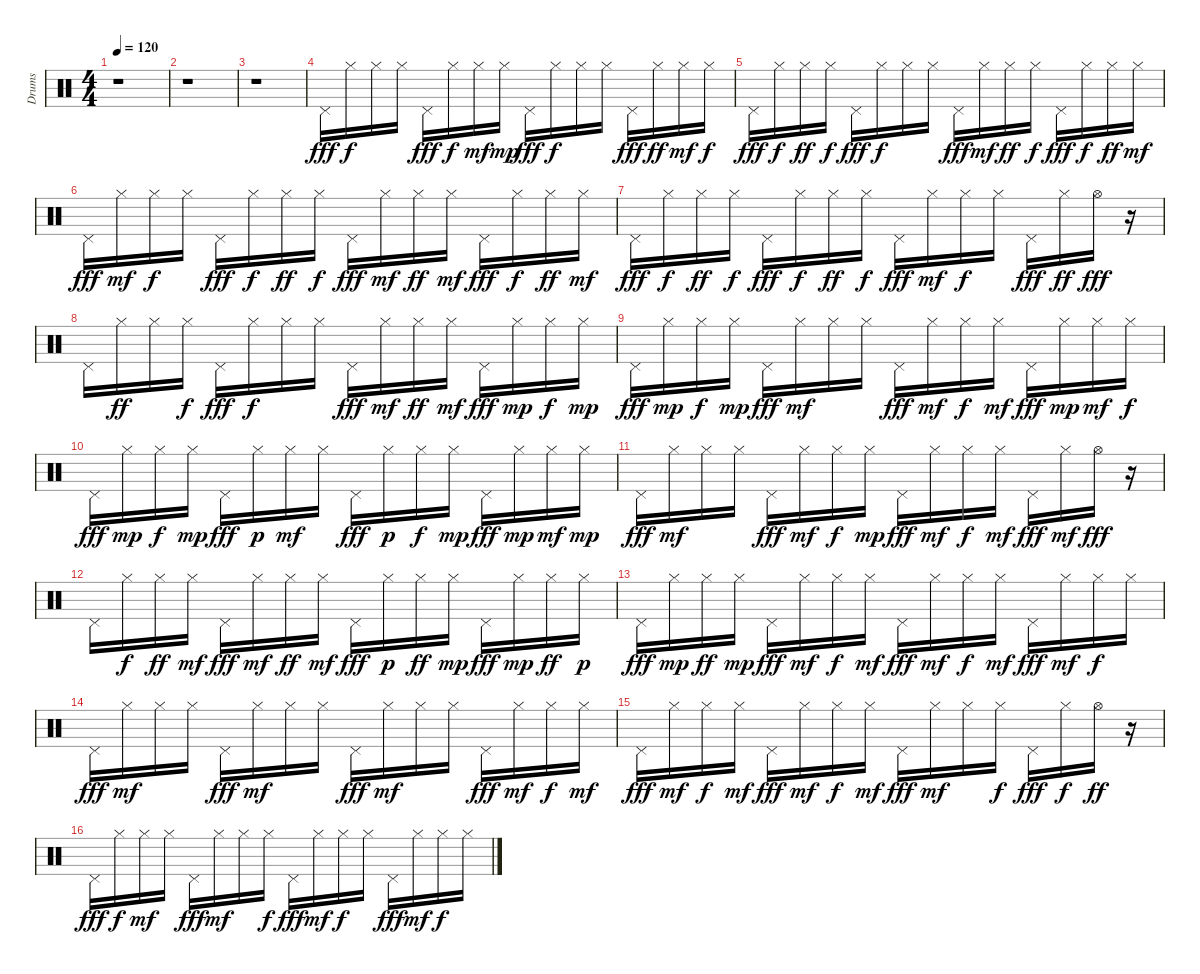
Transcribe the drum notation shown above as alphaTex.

\track ("Drums" "Drums") {instrument percussion}
\staff {score}
\articulation defaults
\ts (4 4)
\tempo 120
\clef neutral
\ks c
r.1{dy fff} |
r.1 |
r.1 |
"Pedal Hi-Hat (hit)".16 "Hi-Hat (closed)".16{dy f} "Hi-Hat (closed)".16 "Hi-Hat (closed)".16 "Pedal Hi-Hat (hit)".16{dy fff} "Hi-Hat (closed)".16{dy f} "Hi-Hat (closed)".16{dy mf} "Hi-Hat (closed)".16{dy mp} "Pedal Hi-Hat (hit)".16{dy fff} "Hi-Hat (closed)".16{dy f} "Hi-Hat (closed)".16 "Hi-Hat (closed)".16 "Pedal Hi-Hat (hit)".16{dy fff} "Hi-Hat (closed)".16{dy ff} "Hi-Hat (closed)".16{dy mf} "Hi-Hat (closed)".16{dy f} |
"Pedal Hi-Hat (hit)".16{dy fff} "Hi-Hat (closed)".16{dy f} "Hi-Hat (closed)".16{dy ff} "Hi-Hat (closed)".16{dy f} "Pedal Hi-Hat (hit)".16{dy fff} "Hi-Hat (closed)".16{dy f} "Hi-Hat (closed)".16 "Hi-Hat (closed)".16 "Pedal Hi-Hat (hit)".16{dy fff} "Hi-Hat (closed)".16{dy mf} "Hi-Hat (closed)".16{dy ff} "Hi-Hat (closed)".16{dy f} "Pedal Hi-Hat (hit)".16{dy fff} "Hi-Hat (closed)".16{dy f} "Hi-Hat (closed)".16{dy ff} "Hi-Hat (closed)".16{dy mf} |
"Pedal Hi-Hat (hit)".16{dy fff} "Hi-Hat (closed)".16{dy mf} "Hi-Hat (closed)".16{dy f} "Hi-Hat (closed)".16 "Pedal Hi-Hat (hit)".16{dy fff} "Hi-Hat (closed)".16{dy f} "Hi-Hat (closed)".16{dy ff} "Hi-Hat (closed)".16{dy f} "Pedal Hi-Hat (hit)".16{dy fff} "Hi-Hat (closed)".16{dy mf} "Hi-Hat (closed)".16{dy ff} "Hi-Hat (closed)".16{dy mf} "Pedal Hi-Hat (hit)".16{dy fff} "Hi-Hat (closed)".16{dy f} "Hi-Hat (closed)".16{dy ff} "Hi-Hat (closed)".16{dy mf} |
"Pedal Hi-Hat (hit)".16{dy fff} "Hi-Hat (closed)".16{dy f} "Hi-Hat (closed)".16{dy ff} "Hi-Hat (closed)".16{dy f} "Pedal Hi-Hat (hit)".16{dy fff} "Hi-Hat (closed)".16{dy f} "Hi-Hat (closed)".16{dy ff} "Hi-Hat (closed)".16{dy f} "Pedal Hi-Hat (hit)".16{dy fff} "Hi-Hat (closed)".16{dy mf} "Hi-Hat (closed)".16{dy f} "Hi-Hat (closed)".16 "Pedal Hi-Hat (hit)".16{dy fff} "Hi-Hat (closed)".16{dy ff} "Hi-Hat (open)".16{dy fff} r.16 |
"Pedal Hi-Hat (hit)".16 "Hi-Hat (closed)".16{dy ff} "Hi-Hat (closed)".16 "Hi-Hat (closed)".16{dy f} "Pedal Hi-Hat (hit)".16{dy fff} "Hi-Hat (closed)".16{dy f} "Hi-Hat (closed)".16 "Hi-Hat (closed)".16 "Pedal Hi-Hat (hit)".16{dy fff} "Hi-Hat (closed)".16{dy mf} "Hi-Hat (closed)".16{dy ff} "Hi-Hat (closed)".16{dy mf} "Pedal Hi-Hat (hit)".16{dy fff} "Hi-Hat (closed)".16{dy mp} "Hi-Hat (closed)".16{dy f} "Hi-Hat (closed)".16{dy mp} |
"Pedal Hi-Hat (hit)".16{dy fff} "Hi-Hat (closed)".16{dy mp} "Hi-Hat (closed)".16{dy f} "Hi-Hat (closed)".16{dy mp} "Pedal Hi-Hat (hit)".16{dy fff} "Hi-Hat (closed)".16{dy mf} "Hi-Hat (closed)".16 "Hi-Hat (closed)".16 "Pedal Hi-Hat (hit)".16{dy fff} "Hi-Hat (closed)".16{dy mf} "Hi-Hat (closed)".16{dy f} "Hi-Hat (closed)".16{dy mf} "Pedal Hi-Hat (hit)".16{dy fff} "Hi-Hat (closed)".16{dy mp} "Hi-Hat (closed)".16{dy mf} "Hi-Hat (closed)".16{dy f} |
"Pedal Hi-Hat (hit)".16{dy fff} "Hi-Hat (closed)".16{dy mp} "Hi-Hat (closed)".16{dy f} "Hi-Hat (closed)".16{dy mp} "Pedal Hi-Hat (hit)".16{dy fff} "Hi-Hat (closed)".16{dy p} "Hi-Hat (closed)".16{dy mf} "Hi-Hat (closed)".16 "Pedal Hi-Hat (hit)".16{dy fff} "Hi-Hat (closed)".16{dy p} "Hi-Hat (closed)".16{dy f} "Hi-Hat (closed)".16{dy mp} "Pedal Hi-Hat (hit)".16{dy fff} "Hi-Hat (closed)".16{dy mp} "Hi-Hat (closed)".16{dy mf} "Hi-Hat (closed)".16{dy mp} |
"Pedal Hi-Hat (hit)".16{dy fff} "Hi-Hat (closed)".16{dy mf} "Hi-Hat (closed)".16 "Hi-Hat (closed)".16 "Pedal Hi-Hat (hit)".16{dy fff} "Hi-Hat (closed)".16{dy mf} "Hi-Hat (closed)".16{dy f} "Hi-Hat (closed)".16{dy mp} "Pedal Hi-Hat (hit)".16{dy fff} "Hi-Hat (closed)".16{dy mf} "Hi-Hat (closed)".16{dy f} "Hi-Hat (closed)".16{dy mf} "Pedal Hi-Hat (hit)".16{dy fff} "Hi-Hat (closed)".16{dy mf} "Hi-Hat (open)".16{dy fff} r.16 |
"Pedal Hi-Hat (hit)".16 "Hi-Hat (closed)".16{dy f} "Hi-Hat (closed)".16{dy ff} "Hi-Hat (closed)".16{dy mf} "Pedal Hi-Hat (hit)".16{dy fff} "Hi-Hat (closed)".16{dy mf} "Hi-Hat (closed)".16{dy ff} "Hi-Hat (closed)".16{dy mf} "Pedal Hi-Hat (hit)".16{dy fff} "Hi-Hat (closed)".16{dy p} "Hi-Hat (closed)".16{dy ff} "Hi-Hat (closed)".16{dy mp} "Pedal Hi-Hat (hit)".16{dy fff} "Hi-Hat (closed)".16{dy mp} "Hi-Hat (closed)".16{dy ff} "Hi-Hat (closed)".16{dy p} |
"Pedal Hi-Hat (hit)".16{dy fff} "Hi-Hat (closed)".16{dy mp} "Hi-Hat (closed)".16{dy ff} "Hi-Hat (closed)".16{dy mp} "Pedal Hi-Hat (hit)".16{dy fff} "Hi-Hat (closed)".16{dy mf} "Hi-Hat (closed)".16{dy f} "Hi-Hat (closed)".16{dy mf} "Pedal Hi-Hat (hit)".16{dy fff} "Hi-Hat (closed)".16{dy mf} "Hi-Hat (closed)".16{dy f} "Hi-Hat (closed)".16{dy mf} "Pedal Hi-Hat (hit)".16{dy fff} "Hi-Hat (closed)".16{dy mf} "Hi-Hat (closed)".16{dy f} "Hi-Hat (closed)".16 |
"Pedal Hi-Hat (hit)".16{dy fff} "Hi-Hat (closed)".16{dy mf} "Hi-Hat (closed)".16 "Hi-Hat (closed)".16 "Pedal Hi-Hat (hit)".16{dy fff} "Hi-Hat (closed)".16{dy mf} "Hi-Hat (closed)".16 "Hi-Hat (closed)".16 "Pedal Hi-Hat (hit)".16{dy fff} "Hi-Hat (closed)".16{dy mf} "Hi-Hat (closed)".16 "Hi-Hat (closed)".16 "Pedal Hi-Hat (hit)".16{dy fff} "Hi-Hat (closed)".16{dy mf} "Hi-Hat (closed)".16{dy f} "Hi-Hat (closed)".16{dy mf} |
"Pedal Hi-Hat (hit)".16{dy fff} "Hi-Hat (closed)".16{dy mf} "Hi-Hat (closed)".16{dy f} "Hi-Hat (closed)".16{dy mf} "Pedal Hi-Hat (hit)".16{dy fff} "Hi-Hat (closed)".16{dy mf} "Hi-Hat (closed)".16{dy f} "Hi-Hat (closed)".16{dy mf} "Pedal Hi-Hat (hit)".16{dy fff} "Hi-Hat (closed)".16{dy mf} "Hi-Hat (closed)".16 "Hi-Hat (closed)".16{dy f} "Pedal Hi-Hat (hit)".16{dy fff} "Hi-Hat (closed)".16{dy f} "Hi-Hat (open)".16{dy ff} r.16 |
"Pedal Hi-Hat (hit)".16{dy fff} "Hi-Hat (closed)".16{dy f} "Hi-Hat (closed)".16{dy mf} "Hi-Hat (closed)".16 "Pedal Hi-Hat (hit)".16{dy fff} "Hi-Hat (closed)".16{dy mf} "Hi-Hat (closed)".16 "Hi-Hat (closed)".16{dy f} "Pedal Hi-Hat (hit)".16{dy fff} "Hi-Hat (closed)".16{dy mf} "Hi-Hat (closed)".16{dy f} "Hi-Hat (closed)".16 "Pedal Hi-Hat (hit)".16{dy fff} "Hi-Hat (closed)".16{dy mf} "Hi-Hat (closed)".16{dy f} "Hi-Hat (closed)".16
